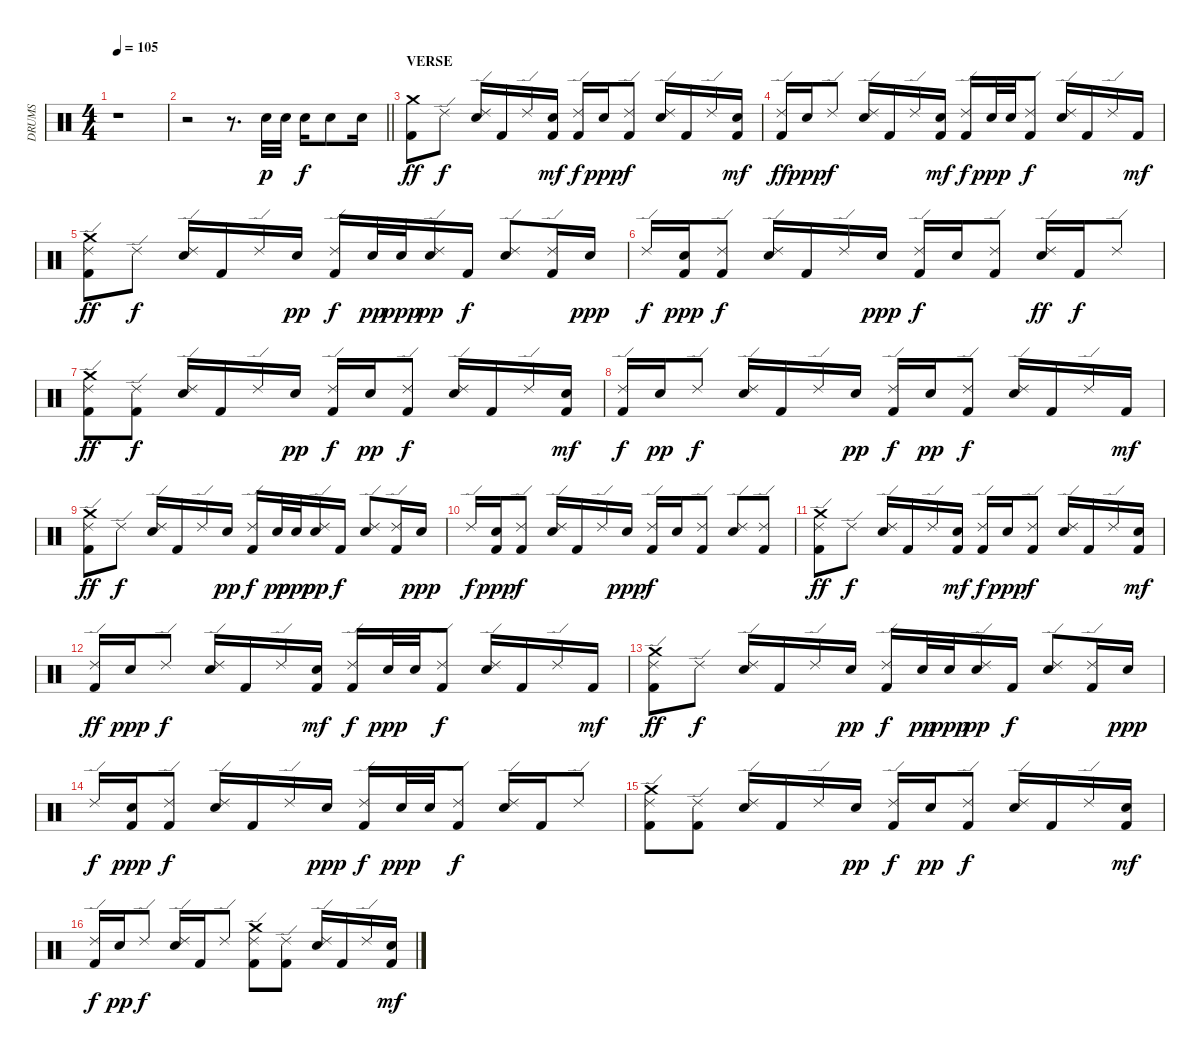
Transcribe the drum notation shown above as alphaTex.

\track ("DRUMS" "DRUMS") {instrument percussion}
\staff {score}
\articulation defaults
\ts (4 4)
\tempo 105
\clef neutral
\ks c
r.1{dy ff} |
\barLineRight lightlight
r.2 r.8{d} "Snare (hit) 2".32{dy p} "Snare (hit) 2".32 "Electric Snare (hit)".16{dy f} "Snare (hit) 2".8 "Snare (hit) 2".16 |
\section ("" "VERSE")
("Crash medium (hit)" "Kick (hit) 2").8{dy ff} "Ride (edge) 2".8{dy f} ("Ride (edge) 2" "Snare (hit) 2").16 "Kick (hit) 2".16 "Ride (edge) 2".16 ("Snare (hit) 2" "Kick (hit) 2").16{dy mf} ("Ride (edge) 2" "Kick (hit) 2").16{dy f} "Snare (hit) 2".16{dy ppp} ("Ride (edge) 2" "Kick (hit) 2").8{dy f} ("Ride (edge) 2" "Snare (hit) 2").16 "Kick (hit) 2".16 "Ride (edge) 2".16 ("Snare (hit) 2" "Kick (hit) 2").16{dy mf} |
("Ride (edge) 2" "Kick (hit) 2").16{dy ff} "Snare (hit) 2".16{dy ppp} "Ride (edge) 2".8{dy f} ("Ride (edge) 2" "Snare (hit) 2").16 "Kick (hit) 2".16 "Ride (edge) 2".16 ("Snare (hit) 2" "Kick (hit) 2").16{dy mf} ("Ride (edge) 2" "Kick (hit) 2").16{dy f} "Snare (hit) 2".32{dy ppp} "Snare (hit) 2".32 ("Ride (edge) 2" "Kick (hit) 2").8{dy f} ("Ride (edge) 2" "Snare (hit) 2").16 "Kick (hit) 2".16 "Ride (edge) 2".16 "Kick (hit) 2".16{dy mf} |
("Ride (edge) 2" "Crash medium (hit)" "Kick (hit) 2").8{dy ff} "Ride (edge) 2".8{dy f} ("Ride (edge) 2" "Snare (hit) 2").16 "Kick (hit) 2".16 "Ride (edge) 2".16 "Snare (hit) 2".16{dy pp} ("Ride (edge) 2" "Kick (hit) 2").16{dy f} "Snare (hit) 2".32{dy pp} "Snare (hit) 2".32{dy ppp} ("Ride (edge) 2" "Snare (hit) 2").16{dy pp} "Kick (hit) 2".16{dy f} ("Ride (edge) 2" "Snare (hit) 2").8 ("Ride (edge) 2" "Kick (hit) 2").16 "Snare (hit) 2".16{dy ppp} |
"Ride (edge) 2".16{dy f} ("Snare (hit) 2" "Kick (hit) 2").16{dy ppp} ("Ride (edge) 2" "Kick (hit) 2").8{dy f} ("Ride (edge) 2" "Snare (hit) 2").16 "Kick (hit) 2".16 "Ride (edge) 2".16 "Snare (hit) 2".16{dy ppp} ("Ride (edge) 2" "Kick (hit) 2").16{dy f} "Snare (hit) 2".16 ("Ride (edge) 2" "Kick (hit) 2").8 ("Ride (edge) 2" "Snare (hit) 2").16{dy ff} "Kick (hit) 2".16{dy f} "Ride (edge) 2".8 |
("Ride (edge) 2" "Crash medium (hit)" "Kick (hit) 2").8{dy ff} ("Ride (edge) 2" "Kick (hit) 2").8{dy f} ("Ride (edge) 2" "Snare (hit) 2").16 "Kick (hit) 2".16 "Ride (edge) 2".16 "Snare (hit) 2".16{dy pp} ("Ride (edge) 2" "Kick (hit) 2").16{dy f} "Snare (hit) 2".16{dy pp} ("Ride (edge) 2" "Kick (hit) 2").8{dy f} ("Ride (edge) 2" "Snare (hit) 2").16 "Kick (hit) 2".16 "Ride (edge) 2".16 ("Snare (hit) 2" "Kick (hit) 2").16{dy mf} |
("Ride (edge) 2" "Kick (hit) 2").16{dy f} "Snare (hit) 2".16{dy pp} "Ride (edge) 2".8{dy f} ("Ride (edge) 2" "Snare (hit) 2").16 "Kick (hit) 2".16 "Ride (edge) 2".16 "Snare (hit) 2".16{dy pp} ("Ride (edge) 2" "Kick (hit) 2").16{dy f} "Snare (hit) 2".16{dy pp} ("Ride (edge) 2" "Kick (hit) 2").8{dy f} ("Ride (edge) 2" "Snare (hit) 2").16 "Kick (hit) 2".16 "Ride (edge) 2".16 "Kick (hit) 2".16{dy mf} |
("Ride (edge) 2" "Crash medium (hit)" "Kick (hit) 2").8{dy ff} "Ride (edge) 2".8{dy f} ("Ride (edge) 2" "Snare (hit) 2").16 "Kick (hit) 2".16 "Ride (edge) 2".16 "Snare (hit) 2".16{dy pp} ("Ride (edge) 2" "Kick (hit) 2").16{dy f} "Snare (hit) 2".32{dy pp} "Snare (hit) 2".32{dy ppp} ("Ride (edge) 2" "Snare (hit) 2").16{dy pp} "Kick (hit) 2".16{dy f} ("Ride (edge) 2" "Snare (hit) 2").8 ("Ride (edge) 2" "Kick (hit) 2").16 "Snare (hit) 2".16{dy ppp} |
"Ride (edge) 2".16{dy f} ("Snare (hit) 2" "Kick (hit) 2").16{dy ppp} ("Ride (edge) 2" "Kick (hit) 2").8{dy f} ("Ride (edge) 2" "Snare (hit) 2").16 "Kick (hit) 2".16 "Ride (edge) 2".16 "Snare (hit) 2".16{dy ppp} ("Ride (edge) 2" "Kick (hit) 2").16{dy f} "Snare (hit) 2".16 ("Ride (edge) 2" "Kick (hit) 2").8 ("Ride (edge) 2" "Snare (hit) 2").8 ("Ride (edge) 2" "Kick (hit) 2").8 |
("Ride (edge) 2" "Crash medium (hit)" "Kick (hit) 2").8{dy ff} "Ride (edge) 2".8{dy f} ("Ride (edge) 2" "Snare (hit) 2").16 "Kick (hit) 2".16 "Ride (edge) 2".16 ("Snare (hit) 2" "Kick (hit) 2").16{dy mf} ("Ride (edge) 2" "Kick (hit) 2").16{dy f} "Snare (hit) 2".16{dy ppp} ("Ride (edge) 2" "Kick (hit) 2").8{dy f} ("Ride (edge) 2" "Snare (hit) 2").16 "Kick (hit) 2".16 "Ride (edge) 2".16 ("Snare (hit) 2" "Kick (hit) 2").16{dy mf} |
("Ride (edge) 2" "Kick (hit) 2").16{dy ff} "Snare (hit) 2".16{dy ppp} "Ride (edge) 2".8{dy f} ("Ride (edge) 2" "Snare (hit) 2").16 "Kick (hit) 2".16 "Ride (edge) 2".16 ("Snare (hit) 2" "Kick (hit) 2").16{dy mf} ("Ride (edge) 2" "Kick (hit) 2").16{dy f} "Snare (hit) 2".32{dy ppp} "Snare (hit) 2".32 ("Ride (edge) 2" "Kick (hit) 2").8{dy f} ("Ride (edge) 2" "Snare (hit) 2").16 "Kick (hit) 2".16 "Ride (edge) 2".16 "Kick (hit) 2".16{dy mf} |
("Ride (edge) 2" "Crash medium (hit)" "Kick (hit) 2").8{dy ff} "Ride (edge) 2".8{dy f} ("Ride (edge) 2" "Snare (hit) 2").16 "Kick (hit) 2".16 "Ride (edge) 2".16 "Snare (hit) 2".16{dy pp} ("Ride (edge) 2" "Kick (hit) 2").16{dy f} "Snare (hit) 2".32{dy pp} "Snare (hit) 2".32{dy ppp} ("Ride (edge) 2" "Snare (hit) 2").16{dy pp} "Kick (hit) 2".16{dy f} ("Ride (edge) 2" "Snare (hit) 2").8 ("Ride (edge) 2" "Kick (hit) 2").16 "Snare (hit) 2".16{dy ppp} |
"Ride (edge) 2".16{dy f} ("Snare (hit) 2" "Kick (hit) 2").16{dy ppp} ("Ride (edge) 2" "Kick (hit) 2").8{dy f} ("Ride (edge) 2" "Snare (hit) 2").16 "Kick (hit) 2".16 "Ride (edge) 2".16 "Snare (hit) 2".16{dy ppp} ("Ride (edge) 2" "Kick (hit) 2").16{dy f} "Snare (hit) 2".32{dy ppp} "Snare (hit) 2".32 ("Ride (edge) 2" "Kick (hit) 2").8{dy f} ("Ride (edge) 2" "Snare (hit) 2").16 "Kick (hit) 2".16 "Ride (edge) 2".8 |
("Ride (edge) 2" "Crash medium (hit)" "Kick (hit) 2").8 ("Ride (edge) 2" "Kick (hit) 2").8 ("Ride (edge) 2" "Snare (hit) 2").16 "Kick (hit) 2".16 "Ride (edge) 2".16 "Snare (hit) 2".16{dy pp} ("Ride (edge) 2" "Kick (hit) 2").16{dy f} "Snare (hit) 2".16{dy pp} ("Ride (edge) 2" "Kick (hit) 2").8{dy f} ("Ride (edge) 2" "Snare (hit) 2").16 "Kick (hit) 2".16 "Ride (edge) 2".16 ("Snare (hit) 2" "Kick (hit) 2").16{dy mf} |
("Ride (edge) 2" "Kick (hit) 2").16{dy f} "Snare (hit) 2".16{dy pp} "Ride (edge) 2".8{dy f} ("Ride (edge) 2" "Snare (hit) 2").16 "Kick (hit) 2".16 "Ride (edge) 2".8 ("Ride (edge) 2" "Crash medium (hit)" "Kick (hit) 2").8 ("Ride (edge) 2" "Kick (hit) 2").8 ("Ride (edge) 2" "Snare (hit) 2").16 "Kick (hit) 2".16 "Ride (edge) 2".16 ("Snare (hit) 2" "Kick (hit) 2").16{dy mf}
